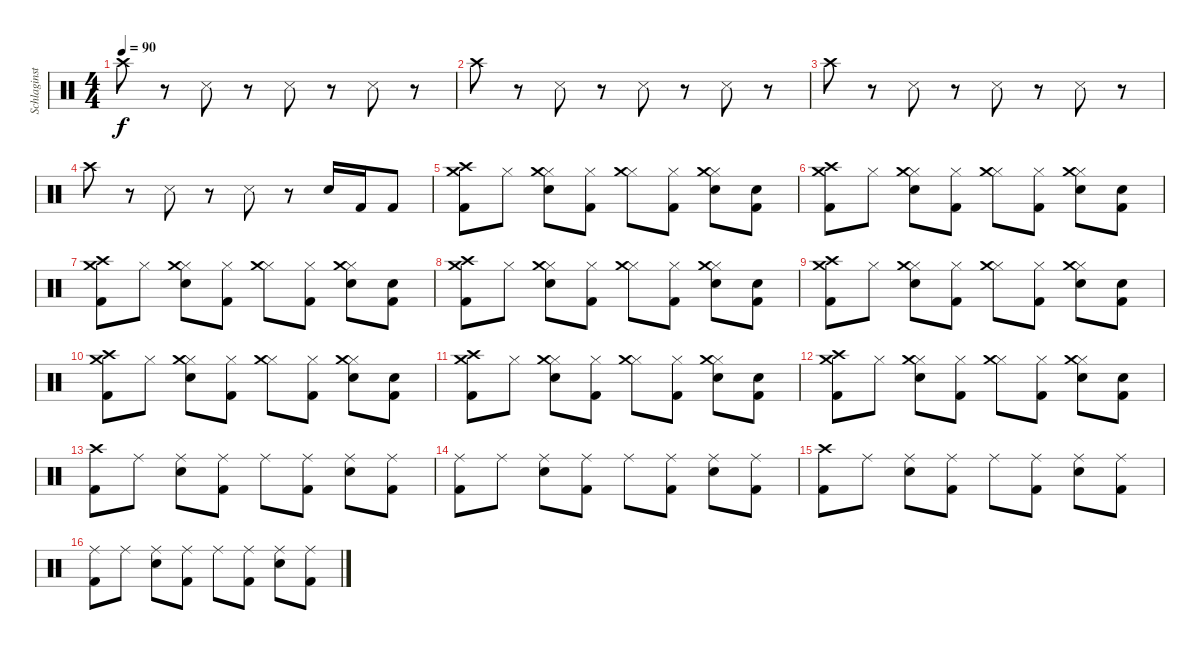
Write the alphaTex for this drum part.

\track ("Schlaginstrumente - Auswahl" "Schlaginst") {instrument percussion}
\staff {score}
\articulation defaults
\ts (4 4)
\tempo 90
\clef neutral
\ks c "Crash high (hit)".8{dy f}
r.8 "Metronome (hit)".8 r.8 "Metronome (hit)".8 r.8 "Metronome (hit)".8 r.8 |
"Crash high (hit)".8 r.8 "Metronome (hit)".8 r.8 "Metronome (hit)".8 r.8 "Metronome (hit)".8 r.8 |
"Crash high (hit)".8 r.8 "Metronome (hit)".8 r.8 "Metronome (hit)".8 r.8 "Metronome (hit)".8 r.8 |
"Crash high (hit)".8 r.8 "Metronome (hit)".8 r.8 "Metronome (hit)".8 r.8 "Snare (hit) 2".16 "Kick (hit) 2".16 "Kick (hit) 2".8 |
("Crash high (hit)" "Kick (hit) 2" "Crash medium (hit)").8 "Hi-Hat (closed)".8 ("Hi-Hat (closed)" "Snare (hit) 2" "Crash medium (hit)").8 ("Hi-Hat (closed)" "Kick (hit) 2").8 ("Hi-Hat (closed)" "Crash medium (hit)").8 ("Hi-Hat (closed)" "Kick (hit) 2").8 ("Hi-Hat (closed)" "Snare (hit) 2" "Crash medium (hit)").8 ("Snare (hit)" "Kick (hit) 2").8 |
("Crash high (hit)" "Kick (hit) 2" "Crash medium (hit)").8 "Hi-Hat (closed)".8 ("Hi-Hat (closed)" "Snare (hit) 2" "Crash medium (hit)").8 ("Hi-Hat (closed)" "Kick (hit) 2").8 ("Hi-Hat (closed)" "Crash medium (hit)").8 ("Hi-Hat (closed)" "Kick (hit) 2").8 ("Hi-Hat (closed)" "Snare (hit) 2" "Crash medium (hit)").8 ("Snare (hit)" "Kick (hit) 2").8 |
("Crash high (hit)" "Kick (hit) 2" "Crash medium (hit)").8 "Hi-Hat (closed)".8 ("Hi-Hat (closed)" "Snare (hit) 2" "Crash medium (hit)").8 ("Hi-Hat (closed)" "Kick (hit) 2").8 ("Hi-Hat (closed)" "Crash medium (hit)").8 ("Hi-Hat (closed)" "Kick (hit) 2").8 ("Hi-Hat (closed)" "Snare (hit) 2" "Crash medium (hit)").8 ("Snare (hit)" "Kick (hit) 2").8 |
("Crash high (hit)" "Kick (hit) 2" "Crash medium (hit)").8 "Hi-Hat (closed)".8 ("Hi-Hat (closed)" "Snare (hit) 2" "Crash medium (hit)").8 ("Hi-Hat (closed)" "Kick (hit) 2").8 ("Hi-Hat (closed)" "Crash medium (hit)").8 ("Hi-Hat (closed)" "Kick (hit) 2").8 ("Hi-Hat (closed)" "Snare (hit) 2" "Crash medium (hit)").8 ("Snare (hit)" "Kick (hit) 2").8 |
("Crash high (hit)" "Kick (hit) 2" "Crash medium (hit)").8 "Hi-Hat (closed)".8 ("Hi-Hat (closed)" "Snare (hit) 2" "Crash medium (hit)").8 ("Hi-Hat (closed)" "Kick (hit) 2").8 ("Hi-Hat (closed)" "Crash medium (hit)").8 ("Hi-Hat (closed)" "Kick (hit) 2").8 ("Hi-Hat (closed)" "Snare (hit) 2" "Crash medium (hit)").8 ("Snare (hit)" "Kick (hit) 2").8 |
("Crash high (hit)" "Kick (hit) 2" "Crash medium (hit)").8 "Hi-Hat (closed)".8 ("Hi-Hat (closed)" "Snare (hit) 2" "Crash medium (hit)").8 ("Hi-Hat (closed)" "Kick (hit) 2").8 ("Hi-Hat (closed)" "Crash medium (hit)").8 ("Hi-Hat (closed)" "Kick (hit) 2").8 ("Hi-Hat (closed)" "Snare (hit) 2" "Crash medium (hit)").8 ("Snare (hit)" "Kick (hit) 2").8 |
("Crash high (hit)" "Kick (hit) 2" "Crash medium (hit)").8 "Hi-Hat (closed)".8 ("Hi-Hat (closed)" "Snare (hit) 2" "Crash medium (hit)").8 ("Hi-Hat (closed)" "Kick (hit) 2").8 ("Hi-Hat (closed)" "Crash medium (hit)").8 ("Hi-Hat (closed)" "Kick (hit) 2").8 ("Hi-Hat (closed)" "Snare (hit) 2" "Crash medium (hit)").8 ("Snare (hit)" "Kick (hit) 2").8 |
("Crash high (hit)" "Kick (hit) 2" "Crash medium (hit)").8 "Hi-Hat (closed)".8 ("Hi-Hat (closed)" "Snare (hit) 2" "Crash medium (hit)").8 ("Hi-Hat (closed)" "Kick (hit) 2").8 ("Hi-Hat (closed)" "Crash medium (hit)").8 ("Hi-Hat (closed)" "Kick (hit) 2").8 ("Hi-Hat (closed)" "Snare (hit) 2" "Crash medium (hit)").8 ("Snare (hit)" "Kick (hit) 2").8 |
("Crash high (hit)" "Kick (hit) 2").8 "Ride (middle)".8 ("Ride (middle)" "Snare (hit) 2").8 ("Ride (middle)" "Kick (hit) 2").8 "Ride (middle)".8 ("Ride (middle)" "Kick (hit) 2").8 ("Ride (middle)" "Snare (hit) 2").8 ("Ride (middle)" "Kick (hit) 2").8 |
("Ride (middle)" "Kick (hit) 2").8 "Ride (middle)".8 ("Ride (middle)" "Snare (hit) 2").8 ("Ride (middle)" "Kick (hit) 2").8 "Ride (middle)".8 ("Ride (middle)" "Kick (hit) 2").8 ("Ride (middle)" "Snare (hit) 2").8 ("Ride (middle)" "Kick (hit) 2").8 |
("Crash high (hit)" "Kick (hit) 2").8 "Ride (middle)".8 ("Ride (middle)" "Snare (hit) 2").8 ("Ride (middle)" "Kick (hit) 2").8 "Ride (middle)".8 ("Ride (middle)" "Kick (hit) 2").8 ("Ride (middle)" "Snare (hit) 2").8 ("Ride (middle)" "Kick (hit) 2").8 |
("Ride (middle)" "Kick (hit) 2").8 "Ride (middle)".8 ("Ride (middle)" "Snare (hit) 2").8 ("Ride (middle)" "Kick (hit) 2").8 "Ride (middle)".8 ("Ride (middle)" "Kick (hit) 2").8 ("Ride (middle)" "Snare (hit) 2").8 ("Ride (middle)" "Kick (hit) 2").8
